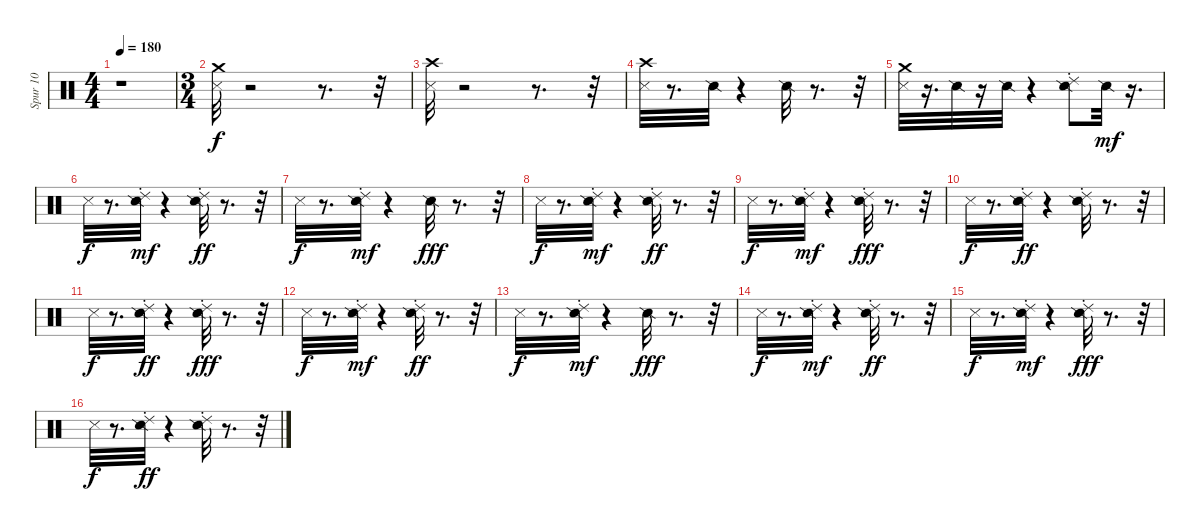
\track ("Spur 10" "Spur 10") {instrument percussion}
\staff {score}
\articulation defaults
\ts (4 4)
\tempo 180
\clef neutral
\ks c
r.1{dy f} |
\ts (3 4)
("Metronome (hit)" "Crash medium (hit)").32 r.2 r.8{d} r.32 |
("Metronome (hit)" "Crash high (hit)").32 r.2 r.8{d} r.32 |
("Metronome (hit)" "Crash high (hit)").32 r.8{d} "Snare (side stick) 2".32 r.4 "Snare (side stick) 2".32 r.8{d} r.32 |
("Metronome (hit)" "Crash medium (hit)").32 r.16{d} "Snare (side stick) 2".32 r.16 "Snare (side stick) 2".32 r.4 ("Snare (side stick) 2" "Ride (choke) 2").8 "Snare (side stick) 2".32{dy mf} r.16{d} |
"Metronome (hit)".32{dy f} r.8{d} ("Ride (choke) 2" "Snare (side stick) 2").32{dy mf} r.4 ("Ride (choke) 2" "Snare (side stick) 2").32{dy ff} r.8{d} r.32 |
"Metronome (hit)".32{dy f} r.8{d} ("Ride (choke) 2" "Snare (side stick) 2").32{dy mf} r.4 "Snare (side stick) 2".32{dy fff} r.8{d} r.32 |
"Metronome (hit)".32{dy f} r.8{d} ("Ride (choke) 2" "Snare (side stick) 2").32{dy mf} r.4 ("Ride (choke) 2" "Snare (side stick) 2").32{dy ff} r.8{d} r.32 |
"Metronome (hit)".32{dy f} r.8{d} ("Ride (choke) 2" "Snare (side stick) 2").32{dy mf} r.4 ("Ride (choke) 2" "Snare (side stick) 2").32{dy fff} r.8{d} r.32 |
"Metronome (hit)".32{dy f} r.8{d} ("Ride (choke) 2" "Snare (side stick) 2").32{dy ff} r.4 ("Ride (choke) 2" "Snare (side stick) 2").32 r.8{d} r.32 |
"Metronome (hit)".32{dy f} r.8{d} ("Ride (choke) 2" "Snare (side stick) 2").32{dy ff} r.4 ("Ride (choke) 2" "Snare (side stick) 2").32{dy fff} r.8{d} r.32 |
"Metronome (hit)".32{dy f} r.8{d} ("Ride (choke) 2" "Snare (side stick) 2").32{dy mf} r.4 ("Ride (choke) 2" "Snare (side stick) 2").32{dy ff} r.8{d} r.32 |
"Metronome (hit)".32{dy f} r.8{d} ("Ride (choke) 2" "Snare (side stick) 2").32{dy mf} r.4 "Snare (side stick) 2".32{dy fff} r.8{d} r.32 |
"Metronome (hit)".32{dy f} r.8{d} ("Ride (choke) 2" "Snare (side stick) 2").32{dy mf} r.4 ("Ride (choke) 2" "Snare (side stick) 2").32{dy ff} r.8{d} r.32 |
"Metronome (hit)".32{dy f} r.8{d} ("Ride (choke) 2" "Snare (side stick) 2").32{dy mf} r.4 ("Ride (choke) 2" "Snare (side stick) 2").32{dy fff} r.8{d} r.32 |
"Metronome (hit)".32{dy f} r.8{d} ("Ride (choke) 2" "Snare (side stick) 2").32{dy ff} r.4 ("Ride (choke) 2" "Snare (side stick) 2").32 r.8{d} r.32
